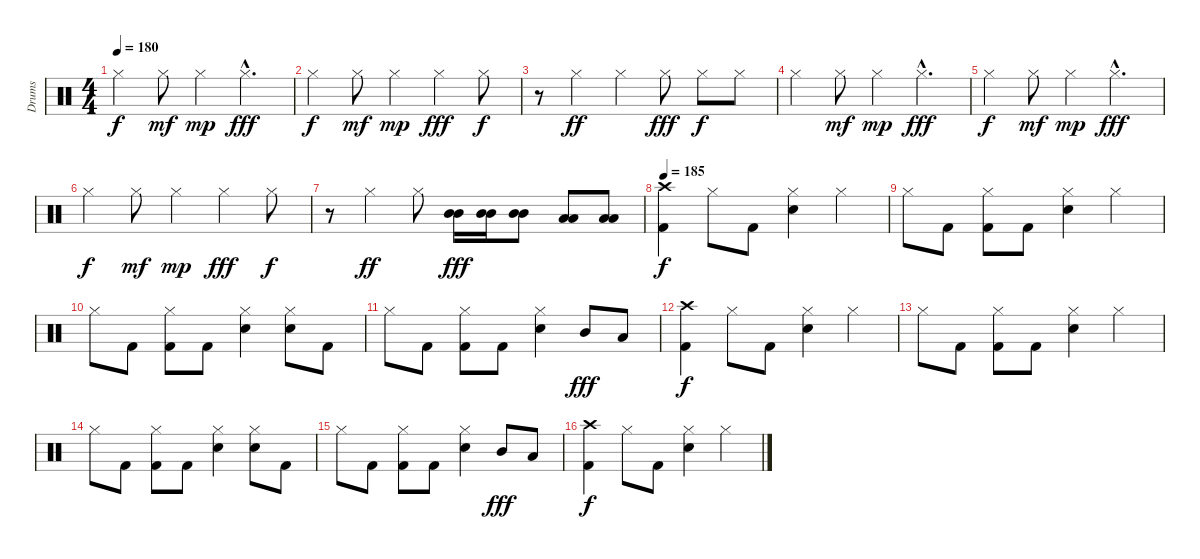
\track ("Drums" "Drums") {instrument percussion}
\staff {score}
\articulation defaults
\ts (4 4)
\tempo 180
\clef neutral
\ks c "Hi-Hat (closed)".4{dy f} "Hi-Hat (closed)".8{dy mf} "Hi-Hat (closed)".4{dy mp} "Hi-Hat (closed)"{hac}.4{d dy fff}
|
"Hi-Hat (closed)".4{dy f} "Hi-Hat (closed)".8{dy mf} "Hi-Hat (closed)".4{dy mp} "Hi-Hat (closed)".4{dy fff} "Hi-Hat (closed)".8{dy f} |
r.8 "Hi-Hat (closed)".4{dy ff} "Hi-Hat (closed)".4 "Hi-Hat (closed)".8{dy fff} "Hi-Hat (closed)".8{dy f} "Hi-Hat (closed)".8 |
"Hi-Hat (closed)".4 "Hi-Hat (closed)".8{dy mf} "Hi-Hat (closed)".4{dy mp} "Hi-Hat (closed)"{hac}.4{d dy fff} |
"Hi-Hat (closed)".4{dy f} "Hi-Hat (closed)".8{dy mf} "Hi-Hat (closed)".4{dy mp} "Hi-Hat (closed)"{hac}.4{d dy fff} |
"Hi-Hat (closed)".4{dy f} "Hi-Hat (closed)".8{dy mf} "Hi-Hat (closed)".4{dy mp} "Hi-Hat (closed)".4{dy fff} "Hi-Hat (closed)".8{dy f} |
r.8 "Hi-Hat (closed)".4{dy ff} "Hi-Hat (closed)".8 ("Mid Tom (hit)" "Mid Tom (hit)").16{dy fff} ("Mid Tom (hit)" "Mid Tom (hit)").16 ("Mid Tom (hit)" "Mid Tom (hit)").8 ("Low Tom (hit)" "Low Tom (hit)").8 ("Low Tom (hit)" "Low Tom (hit)").8 |
\tempo 185
("Crash high (hit)" "Kick (hit) 2").4{dy f} "Hi-Hat (closed)".8 "Kick (hit) 2".8 ("Hi-Hat (closed)" "Snare (hit) 2").4 "Hi-Hat (closed)".4 |
"Hi-Hat (closed)".8 "Kick (hit) 2".8 ("Hi-Hat (closed)" "Kick (hit) 2").8 "Kick (hit) 2".8 ("Hi-Hat (closed)" "Snare (hit) 2").4 "Hi-Hat (closed)".4 |
"Hi-Hat (closed)".8 "Kick (hit) 2".8 ("Hi-Hat (closed)" "Kick (hit) 2").8 "Kick (hit) 2".8 ("Hi-Hat (closed)" "Snare (hit) 2").4 ("Hi-Hat (closed)" "Snare (hit) 2").8 "Kick (hit) 2".8 |
"Hi-Hat (closed)".8 "Kick (hit) 2".8 ("Hi-Hat (closed)" "Kick (hit) 2").8 "Kick (hit) 2".8 ("Hi-Hat (closed)" "Snare (hit) 2").4 "Mid Tom (hit)".8{dy fff} "Low Tom (hit)".8 |
("Crash high (hit)" "Kick (hit) 2").4{dy f} "Hi-Hat (closed)".8 "Kick (hit) 2".8 ("Hi-Hat (closed)" "Snare (hit) 2").4 "Hi-Hat (closed)".4 |
"Hi-Hat (closed)".8 "Kick (hit) 2".8 ("Hi-Hat (closed)" "Kick (hit) 2").8 "Kick (hit) 2".8 ("Hi-Hat (closed)" "Snare (hit) 2").4 "Hi-Hat (closed)".4 |
"Hi-Hat (closed)".8 "Kick (hit) 2".8 ("Hi-Hat (closed)" "Kick (hit) 2").8 "Kick (hit) 2".8 ("Hi-Hat (closed)" "Snare (hit) 2").4 ("Hi-Hat (closed)" "Snare (hit) 2").8 "Kick (hit) 2".8 |
"Hi-Hat (closed)".8 "Kick (hit) 2".8 ("Hi-Hat (closed)" "Kick (hit) 2").8 "Kick (hit) 2".8 ("Hi-Hat (closed)" "Snare (hit) 2").4 "Mid Tom (hit)".8{dy fff} "Low Tom (hit)".8 |
("Crash high (hit)" "Kick (hit) 2").4{dy f} "Hi-Hat (closed)".8 "Kick (hit) 2".8 ("Hi-Hat (closed)" "Snare (hit) 2").4 "Hi-Hat (closed)".4
